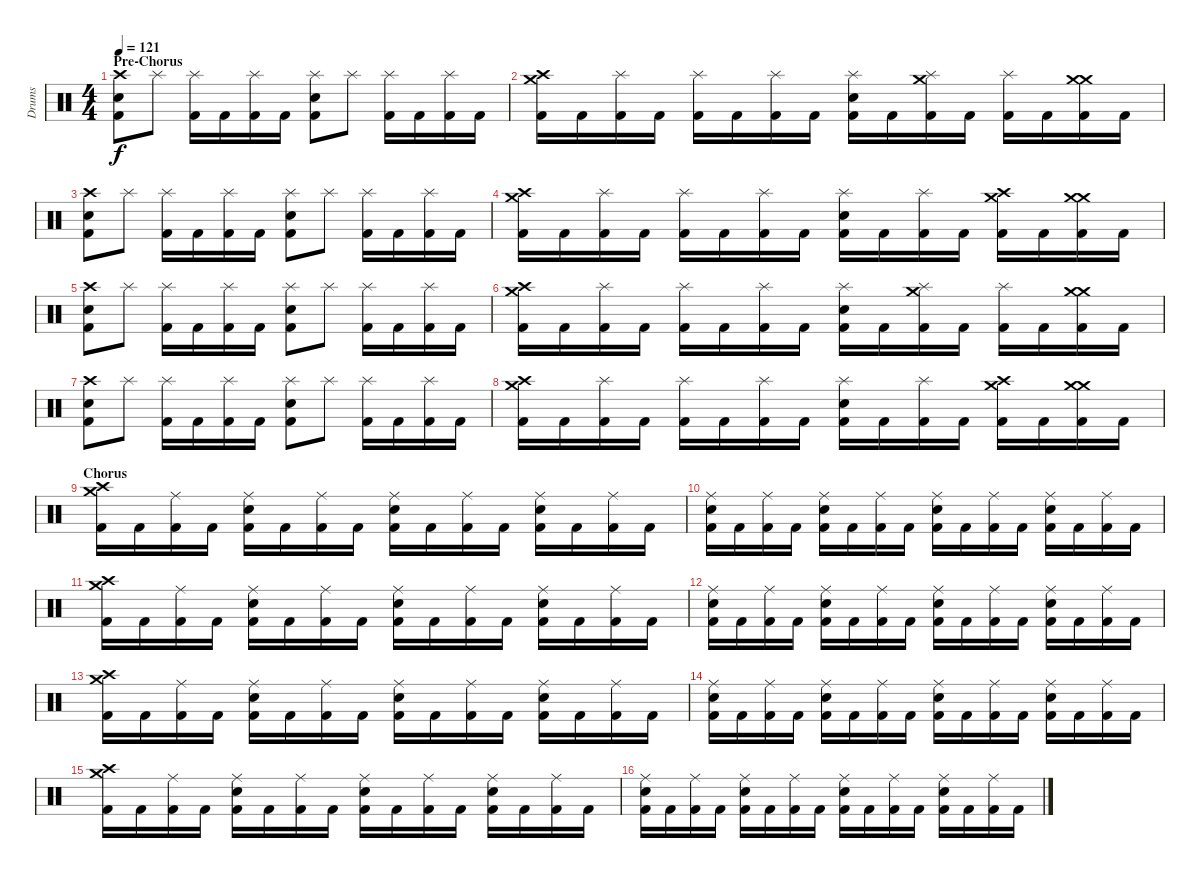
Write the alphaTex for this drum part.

\track ("Drums" "Drums") {instrument percussion}
\staff {score}
\articulation defaults
\ts (4 4)
\section ("" "Pre-Chorus")
\tempo 121
\clef neutral
\ks c
("Crash high (hit)" "Snare (hit) 2" "Kick (hit) 2").8{dy f} "Splash (hit)".8 ("Splash (hit)" "Kick (hit) 2").16 "Kick (hit) 2".16 ("Splash (hit)" "Kick (hit) 2").16 "Kick (hit) 2".16 ("Splash (hit)" "Snare (hit) 2" "Kick (hit) 2").8 "Splash (hit)".8 ("Splash (hit)" "Kick (hit) 2").16 "Kick (hit) 2".16 ("Splash (hit)" "Kick (hit) 2").16 "Kick (hit) 2".16 |
("Crash high (hit)" "Crash medium (hit)" "Kick (hit) 2").16 "Kick (hit) 2".16 ("Splash (hit)" "Kick (hit) 2").16 "Kick (hit) 2".16 ("Splash (hit)" "Kick (hit) 2").16 "Kick (hit) 2".16 ("Splash (hit)" "Kick (hit) 2").16 "Kick (hit) 2".16 ("Splash (hit)" "Snare (hit) 2" "Kick (hit) 2").16 "Kick (hit) 2".16 ("Splash (hit)" "Crash medium (hit)" "Kick (hit) 2").16 "Kick (hit) 2".16 ("Splash (hit)" "Kick (hit) 2").16 "Kick (hit) 2".16 ("Crash medium (hit)" "Crash medium (hit)" "Kick (hit) 2").16 "Kick (hit) 2".16 |
("Crash high (hit)" "Snare (hit) 2" "Kick (hit) 2").8 "Splash (hit)".8 ("Splash (hit)" "Kick (hit) 2").16 "Kick (hit) 2".16 ("Splash (hit)" "Kick (hit) 2").16 "Kick (hit) 2".16 ("Splash (hit)" "Snare (hit) 2" "Kick (hit) 2").8 "Splash (hit)".8 ("Splash (hit)" "Kick (hit) 2").16 "Kick (hit) 2".16 ("Splash (hit)" "Kick (hit) 2").16 "Kick (hit) 2".16 |
("Crash high (hit)" "Crash medium (hit)" "Kick (hit) 2").16 "Kick (hit) 2".16 ("Splash (hit)" "Kick (hit) 2").16 "Kick (hit) 2".16 ("Splash (hit)" "Kick (hit) 2").16 "Kick (hit) 2".16 ("Splash (hit)" "Kick (hit) 2").16 "Kick (hit) 2".16 ("Splash (hit)" "Snare (hit) 2" "Kick (hit) 2").16 "Kick (hit) 2".16 ("Splash (hit)" "Kick (hit) 2").16 "Kick (hit) 2".16 ("Crash high (hit)" "Crash medium (hit)" "Kick (hit) 2").16 "Kick (hit) 2".16 ("Crash medium (hit)" "Crash medium (hit)" "Kick (hit) 2").16 "Kick (hit) 2".16 |
("Crash high (hit)" "Snare (hit) 2" "Kick (hit) 2").8 "Splash (hit)".8 ("Splash (hit)" "Kick (hit) 2").16 "Kick (hit) 2".16 ("Splash (hit)" "Kick (hit) 2").16 "Kick (hit) 2".16 ("Splash (hit)" "Snare (hit) 2" "Kick (hit) 2").8 "Splash (hit)".8 ("Splash (hit)" "Kick (hit) 2").16 "Kick (hit) 2".16 ("Splash (hit)" "Kick (hit) 2").16 "Kick (hit) 2".16 |
("Crash high (hit)" "Crash medium (hit)" "Kick (hit) 2").16 "Kick (hit) 2".16 ("Splash (hit)" "Kick (hit) 2").16 "Kick (hit) 2".16 ("Splash (hit)" "Kick (hit) 2").16 "Kick (hit) 2".16 ("Splash (hit)" "Kick (hit) 2").16 "Kick (hit) 2".16 ("Splash (hit)" "Snare (hit) 2" "Kick (hit) 2").16 "Kick (hit) 2".16 ("Splash (hit)" "Crash medium (hit)" "Kick (hit) 2").16 "Kick (hit) 2".16 ("Splash (hit)" "Kick (hit) 2").16 "Kick (hit) 2".16 ("Crash medium (hit)" "Crash medium (hit)" "Kick (hit) 2").16 "Kick (hit) 2".16 |
("Crash high (hit)" "Snare (hit) 2" "Kick (hit) 2").8 "Splash (hit)".8 ("Splash (hit)" "Kick (hit) 2").16 "Kick (hit) 2".16 ("Splash (hit)" "Kick (hit) 2").16 "Kick (hit) 2".16 ("Splash (hit)" "Snare (hit) 2" "Kick (hit) 2").8 "Splash (hit)".8 ("Splash (hit)" "Kick (hit) 2").16 "Kick (hit) 2".16 ("Splash (hit)" "Kick (hit) 2").16 "Kick (hit) 2".16 |
("Crash high (hit)" "Crash medium (hit)" "Kick (hit) 2").16 "Kick (hit) 2".16 ("Splash (hit)" "Kick (hit) 2").16 "Kick (hit) 2".16 ("Splash (hit)" "Kick (hit) 2").16 "Kick (hit) 2".16 ("Splash (hit)" "Kick (hit) 2").16 "Kick (hit) 2".16 ("Splash (hit)" "Snare (hit) 2" "Kick (hit) 2").16 "Kick (hit) 2".16 ("Splash (hit)" "Kick (hit) 2").16 "Kick (hit) 2".16 ("Crash high (hit)" "Crash medium (hit)" "Kick (hit) 2").16 "Kick (hit) 2".16 ("Crash medium (hit)" "Crash medium (hit)" "Kick (hit) 2").16 "Kick (hit) 2".16 |
\section ("" "Chorus")
("Crash high (hit)" "Crash medium (hit)" "Kick (hit) 2").16 "Kick (hit) 2".16 ("Ride (middle)" "Kick (hit) 2").16 "Kick (hit) 2".16 ("Ride (middle)" "Snare (hit) 2" "Kick (hit) 2").16 "Kick (hit) 2".16 ("Ride (middle)" "Kick (hit) 2").16 "Kick (hit) 2".16 ("Ride (middle)" "Snare (hit) 2" "Kick (hit) 2").16 "Kick (hit) 2".16 ("Ride (middle)" "Kick (hit) 2").16 "Kick (hit) 2".16 ("Ride (middle)" "Snare (hit) 2" "Kick (hit) 2").16 "Kick (hit) 2".16 ("Ride (middle)" "Kick (hit) 2").16 "Kick (hit) 2".16 |
("Ride (middle)" "Snare (hit) 2" "Kick (hit) 2").16 "Kick (hit) 2".16 ("Ride (middle)" "Kick (hit) 2").16 "Kick (hit) 2".16 ("Ride (middle)" "Snare (hit) 2" "Kick (hit) 2").16 "Kick (hit) 2".16 ("Ride (middle)" "Kick (hit) 2").16 "Kick (hit) 2".16 ("Ride (middle)" "Snare (hit) 2" "Kick (hit) 2").16 "Kick (hit) 2".16 ("Ride (middle)" "Kick (hit) 2").16 "Kick (hit) 2".16 ("Ride (middle)" "Snare (hit) 2" "Kick (hit) 2").16 "Kick (hit) 2".16 ("Ride (middle)" "Kick (hit) 2").16 "Kick (hit) 2".16 |
("Crash high (hit)" "Crash medium (hit)" "Kick (hit) 2").16 "Kick (hit) 2".16 ("Ride (middle)" "Kick (hit) 2").16 "Kick (hit) 2".16 ("Ride (middle)" "Snare (hit) 2" "Kick (hit) 2").16 "Kick (hit) 2".16 ("Ride (middle)" "Kick (hit) 2").16 "Kick (hit) 2".16 ("Ride (middle)" "Snare (hit) 2" "Kick (hit) 2").16 "Kick (hit) 2".16 ("Ride (middle)" "Kick (hit) 2").16 "Kick (hit) 2".16 ("Ride (middle)" "Snare (hit) 2" "Kick (hit) 2").16 "Kick (hit) 2".16 ("Ride (middle)" "Kick (hit) 2").16 "Kick (hit) 2".16 |
("Ride (middle)" "Snare (hit) 2" "Kick (hit) 2").16 "Kick (hit) 2".16 ("Ride (middle)" "Kick (hit) 2").16 "Kick (hit) 2".16 ("Ride (middle)" "Snare (hit) 2" "Kick (hit) 2").16 "Kick (hit) 2".16 ("Ride (middle)" "Kick (hit) 2").16 "Kick (hit) 2".16 ("Ride (middle)" "Snare (hit) 2" "Kick (hit) 2").16 "Kick (hit) 2".16 ("Ride (middle)" "Kick (hit) 2").16 "Kick (hit) 2".16 ("Ride (middle)" "Snare (hit) 2" "Kick (hit) 2").16 "Kick (hit) 2".16 ("Ride (middle)" "Kick (hit) 2").16 "Kick (hit) 2".16 |
("Crash high (hit)" "Crash medium (hit)" "Kick (hit) 2").16 "Kick (hit) 2".16 ("Ride (middle)" "Kick (hit) 2").16 "Kick (hit) 2".16 ("Ride (middle)" "Snare (hit) 2" "Kick (hit) 2").16 "Kick (hit) 2".16 ("Ride (middle)" "Kick (hit) 2").16 "Kick (hit) 2".16 ("Ride (middle)" "Snare (hit) 2" "Kick (hit) 2").16 "Kick (hit) 2".16 ("Ride (middle)" "Kick (hit) 2").16 "Kick (hit) 2".16 ("Ride (middle)" "Snare (hit) 2" "Kick (hit) 2").16 "Kick (hit) 2".16 ("Ride (middle)" "Kick (hit) 2").16 "Kick (hit) 2".16 |
("Ride (middle)" "Snare (hit) 2" "Kick (hit) 2").16 "Kick (hit) 2".16 ("Ride (middle)" "Kick (hit) 2").16 "Kick (hit) 2".16 ("Ride (middle)" "Snare (hit) 2" "Kick (hit) 2").16 "Kick (hit) 2".16 ("Ride (middle)" "Kick (hit) 2").16 "Kick (hit) 2".16 ("Ride (middle)" "Snare (hit) 2" "Kick (hit) 2").16 "Kick (hit) 2".16 ("Ride (middle)" "Kick (hit) 2").16 "Kick (hit) 2".16 ("Ride (middle)" "Snare (hit) 2" "Kick (hit) 2").16 "Kick (hit) 2".16 ("Ride (middle)" "Kick (hit) 2").16 "Kick (hit) 2".16 |
("Crash high (hit)" "Crash medium (hit)" "Kick (hit) 2").16 "Kick (hit) 2".16 ("Ride (middle)" "Kick (hit) 2").16 "Kick (hit) 2".16 ("Ride (middle)" "Snare (hit) 2" "Kick (hit) 2").16 "Kick (hit) 2".16 ("Ride (middle)" "Kick (hit) 2").16 "Kick (hit) 2".16 ("Ride (middle)" "Snare (hit) 2" "Kick (hit) 2").16 "Kick (hit) 2".16 ("Ride (middle)" "Kick (hit) 2").16 "Kick (hit) 2".16 ("Ride (middle)" "Snare (hit) 2" "Kick (hit) 2").16 "Kick (hit) 2".16 ("Ride (middle)" "Kick (hit) 2").16 "Kick (hit) 2".16 |
("Ride (middle)" "Snare (hit) 2" "Kick (hit) 2").16 "Kick (hit) 2".16 ("Ride (middle)" "Kick (hit) 2").16 "Kick (hit) 2".16 ("Ride (middle)" "Snare (hit) 2" "Kick (hit) 2").16 "Kick (hit) 2".16 ("Ride (middle)" "Kick (hit) 2").16 "Kick (hit) 2".16 ("Ride (middle)" "Snare (hit) 2" "Kick (hit) 2").16 "Kick (hit) 2".16 ("Ride (middle)" "Kick (hit) 2").16 "Kick (hit) 2".16 ("Ride (middle)" "Snare (hit) 2" "Kick (hit) 2").16 "Kick (hit) 2".16 ("Ride (middle)" "Kick (hit) 2").16 "Kick (hit) 2".16
